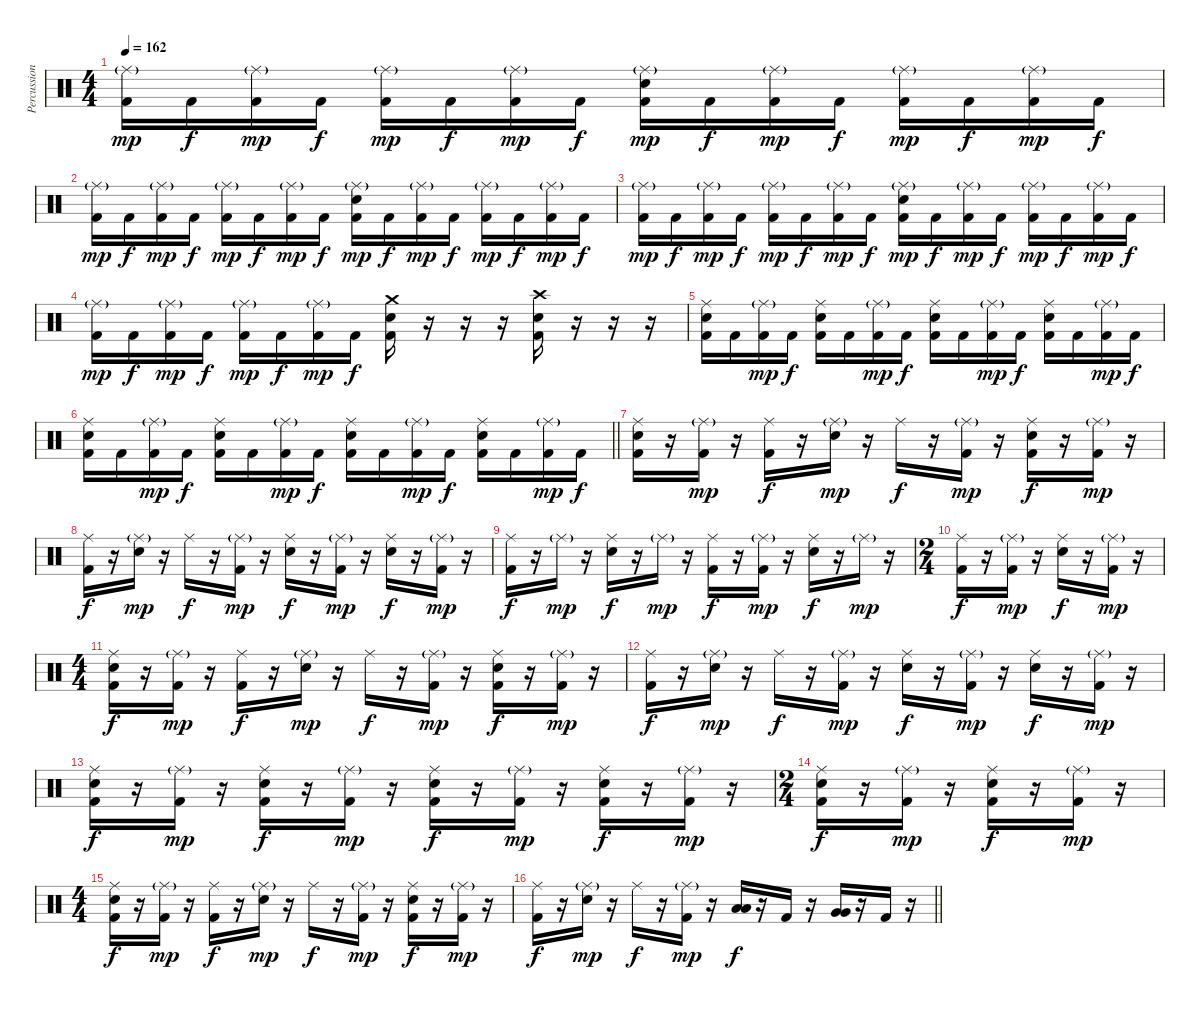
\track ("Percussion" "Percussion") {instrument percussion}
\staff {score}
\articulation defaults
\ts (4 4)
\tempo 162
\clef neutral
\ks c
("Ride (middle)"{g} "Kick (hit) 2").16{dy mp} "Kick (hit) 2".16{dy f} ("Ride (middle)"{g} "Kick (hit) 2").16{dy mp} "Kick (hit) 2".16{dy f} ("Ride (middle)"{g} "Kick (hit) 2").16{dy mp} "Kick (hit) 2".16{dy f} ("Ride (middle)"{g} "Kick (hit) 2").16{dy mp} "Kick (hit) 2".16{dy f} ("Ride (middle)"{g} "Electric Snare (hit)" "Kick (hit) 2").16{dy mp} "Kick (hit) 2".16{dy f} ("Ride (middle)"{g} "Kick (hit) 2").16{dy mp} "Kick (hit) 2".16{dy f} ("Ride (middle)"{g} "Kick (hit) 2").16{dy mp} "Kick (hit) 2".16{dy f} ("Ride (middle)"{g} "Kick (hit) 2").16{dy mp} "Kick (hit) 2".16{dy f} |
("Ride (middle)"{g} "Kick (hit) 2").16{dy mp} "Kick (hit) 2".16{dy f} ("Ride (middle)"{g} "Kick (hit) 2").16{dy mp} "Kick (hit) 2".16{dy f} ("Ride (middle)"{g} "Kick (hit) 2").16{dy mp} "Kick (hit) 2".16{dy f} ("Ride (middle)"{g} "Kick (hit) 2").16{dy mp} "Kick (hit) 2".16{dy f} ("Ride (middle)"{g} "Electric Snare (hit)" "Kick (hit) 2").16{dy mp} "Kick (hit) 2".16{dy f} ("Ride (middle)"{g} "Kick (hit) 2").16{dy mp} "Kick (hit) 2".16{dy f} ("Ride (middle)"{g} "Kick (hit) 2").16{dy mp} "Kick (hit) 2".16{dy f} ("Ride (middle)"{g} "Kick (hit) 2").16{dy mp} "Kick (hit) 2".16{dy f} |
("Ride (middle)"{g} "Kick (hit) 2").16{dy mp} "Kick (hit) 2".16{dy f} ("Ride (middle)"{g} "Kick (hit) 2").16{dy mp} "Kick (hit) 2".16{dy f} ("Ride (middle)"{g} "Kick (hit) 2").16{dy mp} "Kick (hit) 2".16{dy f} ("Ride (middle)"{g} "Kick (hit) 2").16{dy mp} "Kick (hit) 2".16{dy f} ("Ride (middle)"{g} "Electric Snare (hit)" "Kick (hit) 2").16{dy mp} "Kick (hit) 2".16{dy f} ("Ride (middle)"{g} "Kick (hit) 2").16{dy mp} "Kick (hit) 2".16{dy f} ("Ride (middle)"{g} "Kick (hit) 2").16{dy mp} "Kick (hit) 2".16{dy f} ("Ride (middle)"{g} "Kick (hit) 2").16{dy mp} "Kick (hit) 2".16{dy f} |
("Ride (middle)"{g} "Kick (hit) 2").16{dy mp} "Kick (hit) 2".16{dy f} ("Ride (middle)"{g} "Kick (hit) 2").16{dy mp} "Kick (hit) 2".16{dy f} ("Ride (middle)"{g} "Kick (hit) 2").16{dy mp} "Kick (hit) 2".16{dy f} ("Ride (middle)"{g} "Kick (hit) 2").16{dy mp} "Kick (hit) 2".16{dy f} ("Crash medium (hit)" "Electric Snare (hit)" "Kick (hit) 2").16 r.16 r.16 r.16 ("Crash high (hit)" "Electric Snare (hit)" "Kick (hit) 2").16 r.16 r.16 r.16 |
("Ride (middle)" "Electric Snare (hit)" "Kick (hit) 2").16 "Kick (hit) 2".16 ("Ride (middle)"{g} "Kick (hit) 2").16{dy mp} "Kick (hit) 2".16{dy f} ("Ride (middle)" "Electric Snare (hit)" "Kick (hit) 2").16 "Kick (hit) 2".16 ("Ride (middle)"{g} "Kick (hit) 2").16{dy mp} "Kick (hit) 2".16{dy f} ("Ride (middle)" "Electric Snare (hit)" "Kick (hit) 2").16 "Kick (hit) 2".16 ("Ride (middle)"{g} "Kick (hit) 2").16{dy mp} "Kick (hit) 2".16{dy f} ("Ride (middle)" "Electric Snare (hit)" "Kick (hit) 2").16 "Kick (hit) 2".16 ("Ride (middle)"{g} "Kick (hit) 2").16{dy mp} "Kick (hit) 2".16{dy f} |
\barLineRight lightlight
("Ride (middle)" "Electric Snare (hit)" "Kick (hit) 2").16 "Kick (hit) 2".16 ("Ride (middle)"{g} "Kick (hit) 2").16{dy mp} "Kick (hit) 2".16{dy f} ("Ride (middle)" "Electric Snare (hit)" "Kick (hit) 2").16 "Kick (hit) 2".16 ("Ride (middle)"{g} "Kick (hit) 2").16{dy mp} "Kick (hit) 2".16{dy f} ("Ride (middle)" "Electric Snare (hit)" "Kick (hit) 2").16 "Kick (hit) 2".16 ("Ride (middle)"{g} "Kick (hit) 2").16{dy mp} "Kick (hit) 2".16{dy f} ("Ride (middle)" "Electric Snare (hit)" "Kick (hit) 2").16 "Kick (hit) 2".16 ("Ride (middle)"{g} "Kick (hit) 2").16{dy mp} "Kick (hit) 2".16{dy f} |
\section ("" "")
("Ride (middle)" "Electric Snare (hit)" "Kick (hit) 2").16 r.16 ("Ride (middle)"{g} "Kick (hit) 2").16{dy mp} r.16 ("Ride (middle)" "Kick (hit) 2").16{dy f} r.16 ("Ride (middle)"{g} "Electric Snare (hit)").16{dy mp} r.16 "Ride (middle)".16{dy f} r.16 ("Ride (middle)"{g} "Kick (hit) 2").16{dy mp} r.16 ("Ride (middle)" "Electric Snare (hit)" "Kick (hit) 2").16{dy f} r.16 ("Ride (middle)"{g} "Kick (hit) 2").16{dy mp} r.16 |
("Ride (middle)" "Kick (hit) 2").16{dy f} r.16 ("Ride (middle)"{g} "Electric Snare (hit)").16{dy mp} r.16 "Ride (middle)".16{dy f} r.16 ("Ride (middle)"{g} "Kick (hit) 2").16{dy mp} r.16 ("Ride (middle)" "Electric Snare (hit)").16{dy f} r.16 ("Ride (middle)"{g} "Kick (hit) 2").16{dy mp} r.16 ("Ride (middle)" "Electric Snare (hit)").16{dy f} r.16 ("Ride (middle)"{g} "Kick (hit) 2").16{dy mp} r.16 |
("Ride (middle)" "Kick (hit) 2").16{dy f} r.16 "Ride (middle)"{g}.16{dy mp} r.16 ("Ride (middle)" "Electric Snare (hit)").16{dy f} r.16 "Ride (middle)"{g}.16{dy mp} r.16 ("Ride (middle)" "Kick (hit) 2").16{dy f} r.16 ("Ride (middle)"{g} "Kick (hit) 2").16{dy mp} r.16 ("Ride (middle)" "Electric Snare (hit)").16{dy f} r.16 "Ride (middle)"{g}.16{dy mp} r.16 |
\ts (2 4)
("Ride (middle)" "Kick (hit) 2").16{dy f} r.16 ("Ride (middle)"{g} "Kick (hit) 2").16{dy mp} r.16 ("Ride (middle)" "Electric Snare (hit)").16{dy f} r.16 ("Ride (middle)"{g} "Kick (hit) 2").16{dy mp} r.16 |
\ts (4 4)
("Ride (middle)" "Electric Snare (hit)" "Kick (hit) 2").16{dy f} r.16 ("Ride (middle)"{g} "Kick (hit) 2").16{dy mp} r.16 ("Ride (middle)" "Kick (hit) 2").16{dy f} r.16 ("Ride (middle)"{g} "Electric Snare (hit)").16{dy mp} r.16 "Ride (middle)".16{dy f} r.16 ("Ride (middle)"{g} "Kick (hit) 2").16{dy mp} r.16 ("Ride (middle)" "Electric Snare (hit)" "Kick (hit) 2").16{dy f} r.16 ("Ride (middle)"{g} "Kick (hit) 2").16{dy mp} r.16 |
("Ride (middle)" "Kick (hit) 2").16{dy f} r.16 ("Ride (middle)"{g} "Electric Snare (hit)").16{dy mp} r.16 "Ride (middle)".16{dy f} r.16 ("Ride (middle)"{g} "Kick (hit) 2").16{dy mp} r.16 ("Ride (middle)" "Electric Snare (hit)").16{dy f} r.16 ("Ride (middle)"{g} "Kick (hit) 2").16{dy mp} r.16 ("Ride (middle)" "Electric Snare (hit)").16{dy f} r.16 ("Ride (middle)"{g} "Kick (hit) 2").16{dy mp} r.16 |
("Ride (middle)" "Electric Snare (hit)" "Kick (hit) 2").16{dy f} r.16 ("Ride (middle)"{g} "Kick (hit) 2").16{dy mp} r.16 ("Ride (middle)" "Electric Snare (hit)" "Kick (hit) 2").16{dy f} r.16 ("Ride (middle)"{g} "Kick (hit) 2").16{dy mp} r.16 ("Ride (middle)" "Electric Snare (hit)" "Kick (hit) 2").16{dy f} r.16 ("Ride (middle)"{g} "Kick (hit) 2").16{dy mp} r.16 ("Ride (middle)" "Electric Snare (hit)" "Kick (hit) 2").16{dy f} r.16 ("Ride (middle)"{g} "Kick (hit) 2").16{dy mp} r.16 |
\ts (2 4)
("Ride (middle)" "Electric Snare (hit)" "Kick (hit) 2").16{dy f} r.16 ("Ride (middle)"{g} "Kick (hit) 2").16{dy mp} r.16 ("Ride (middle)" "Electric Snare (hit)" "Kick (hit) 2").16{dy f} r.16 ("Ride (middle)"{g} "Kick (hit) 2").16{dy mp} r.16 |
\ts (4 4)
("Ride (middle)" "Electric Snare (hit)" "Kick (hit) 2").16{dy f} r.16 ("Ride (middle)"{g} "Kick (hit) 2").16{dy mp} r.16 ("Ride (middle)" "Kick (hit) 2").16{dy f} r.16 ("Ride (middle)"{g} "Electric Snare (hit)").16{dy mp} r.16 "Ride (middle)".16{dy f} r.16 ("Ride (middle)"{g} "Kick (hit) 2").16{dy mp} r.16 ("Ride (middle)" "Electric Snare (hit)" "Kick (hit) 2").16{dy f} r.16 ("Ride (middle)"{g} "Kick (hit) 2").16{dy mp} r.16 |
\barLineRight lightlight
("Ride (middle)" "Kick (hit) 2").16{dy f} r.16 ("Ride (middle)"{g} "Electric Snare (hit)").16{dy mp} r.16 "Ride (middle)".16{dy f} r.16 ("Ride (middle)"{g} "Kick (hit) 2").16{dy mp} r.16 ("Low Tom (hit)" "Low Tom (hit)").16{dy f} r.16 "Kick (hit) 2".16 r.16 ("Very Low Tom (hit)" "Very Low Tom (hit)").16 r.16 "Kick (hit) 2".16 r.16
